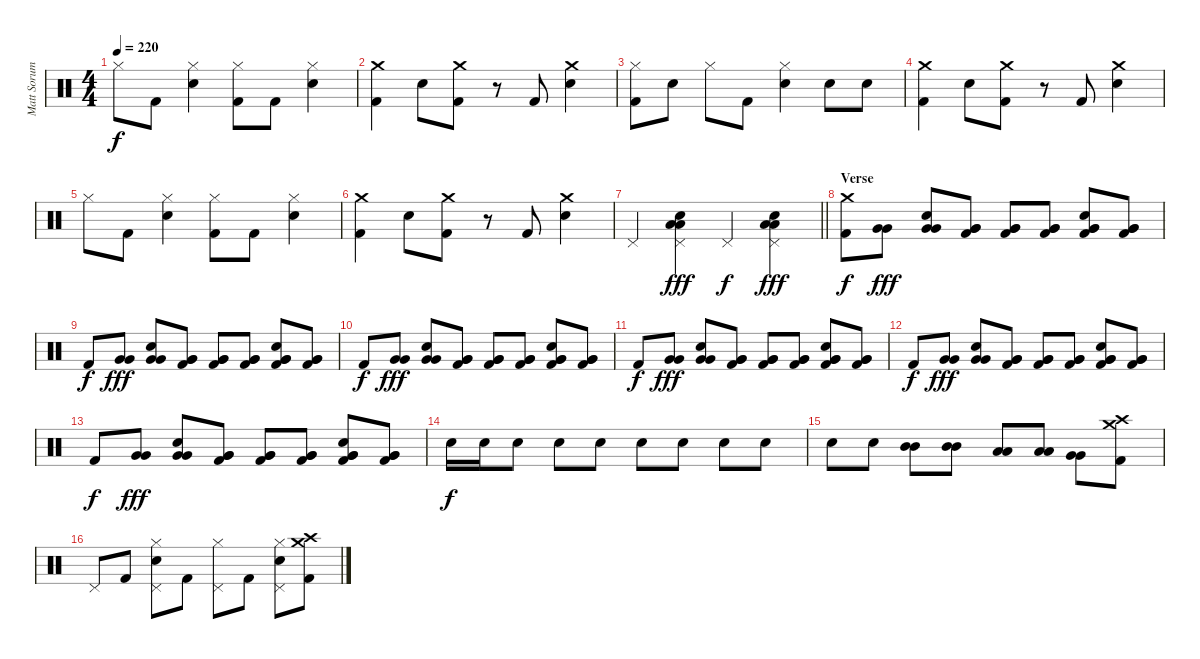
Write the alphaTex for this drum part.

\track ("Matt Sorum - Drums" "Matt Sorum") {instrument percussion}
\staff {score}
\articulation defaults
\ts (4 4)
\tempo 220
\clef neutral
\ks c "Hi-Hat (closed)".8{dy f} "Kick (hit) 2".8
("Hi-Hat (closed)" "Snare (hit) 2").4 ("Hi-Hat (closed)" "Kick (hit) 2").8 "Kick (hit) 2".8 ("Hi-Hat (closed)" "Snare (hit) 2").4 |
("Crash medium (hit)" "Kick (hit) 2").4 "Snare (hit) 2".8 ("Crash medium (hit)" "Kick (hit) 2").8 r.8 "Kick (hit) 2".8 ("Crash medium (hit)" "Snare (hit) 2").4 |
("Hi-Hat (closed)" "Kick (hit) 2").8 "Snare (hit) 2".8 "Hi-Hat (closed)".8 "Kick (hit) 2".8 ("Hi-Hat (closed)" "Snare (hit) 2").4 "Snare (hit) 2".8 "Snare (hit) 2".8 |
("Crash medium (hit)" "Kick (hit) 2").4 "Snare (hit) 2".8 ("Crash medium (hit)" "Kick (hit) 2").8 r.8 "Kick (hit) 2".8 ("Crash medium (hit)" "Snare (hit) 2").4 |
"Hi-Hat (closed)".8 "Kick (hit) 2".8 ("Hi-Hat (closed)" "Snare (hit) 2").4 ("Hi-Hat (closed)" "Kick (hit) 2").8 "Kick (hit) 2".8 ("Hi-Hat (closed)" "Snare (hit) 2").4 |
("Crash medium (hit)" "Kick (hit) 2").4 "Snare (hit) 2".8 ("Crash medium (hit)" "Kick (hit) 2").8 r.8 "Kick (hit) 2".8 ("Crash medium (hit)" "Snare (hit) 2").4 |
\barLineRight lightlight "Pedal Hi-Hat (hit)".4
("Pedal Hi-Hat (hit)" "Low Tom (hit)" "Low Tom (hit)" "Snare (hit) 2").4{dy fff} "Pedal Hi-Hat (hit)".4{dy f} ("Pedal Hi-Hat (hit)" "Low Tom (hit)" "Low Tom (hit)" "Snare (hit) 2").4{dy fff} |
\section ("" "Verse")
("Crash medium (hit)" "Kick (hit) 2").8{dy f} ("Very Low Tom (hit)" "Very Low Tom (hit)").8{dy fff} ("Very Low Tom (hit)" "Very Low Tom (hit)" "Snare (hit) 2").8 ("Very Low Tom (hit)" "Very Low Tom (hit)" "Kick (hit) 2").8 ("Very Low Tom (hit)" "Very Low Tom (hit)" "Kick (hit) 2").8 ("Very Low Tom (hit)" "Very Low Tom (hit)" "Kick (hit) 2").8 ("Very Low Tom (hit)" "Very Low Tom (hit)" "Snare (hit) 2" "Kick (hit) 2").8 ("Very Low Tom (hit)" "Very Low Tom (hit)" "Kick (hit) 2").8 |
"Kick (hit) 2".8{dy f} ("Very Low Tom (hit)" "Very Low Tom (hit)").8{dy fff} ("Very Low Tom (hit)" "Very Low Tom (hit)" "Snare (hit) 2").8 ("Very Low Tom (hit)" "Very Low Tom (hit)" "Kick (hit) 2").8 ("Very Low Tom (hit)" "Very Low Tom (hit)" "Kick (hit) 2").8 ("Very Low Tom (hit)" "Very Low Tom (hit)" "Kick (hit) 2").8 ("Very Low Tom (hit)" "Very Low Tom (hit)" "Snare (hit) 2" "Kick (hit) 2").8 ("Very Low Tom (hit)" "Very Low Tom (hit)" "Kick (hit) 2").8 |
"Kick (hit) 2".8{dy f} ("Very Low Tom (hit)" "Very Low Tom (hit)").8{dy fff} ("Very Low Tom (hit)" "Very Low Tom (hit)" "Snare (hit) 2").8 ("Very Low Tom (hit)" "Very Low Tom (hit)" "Kick (hit) 2").8 ("Very Low Tom (hit)" "Very Low Tom (hit)" "Kick (hit) 2").8 ("Very Low Tom (hit)" "Very Low Tom (hit)" "Kick (hit) 2").8 ("Very Low Tom (hit)" "Very Low Tom (hit)" "Snare (hit) 2" "Kick (hit) 2").8 ("Very Low Tom (hit)" "Very Low Tom (hit)" "Kick (hit) 2").8 |
"Kick (hit) 2".8{dy f} ("Very Low Tom (hit)" "Very Low Tom (hit)").8{dy fff} ("Very Low Tom (hit)" "Very Low Tom (hit)" "Snare (hit) 2").8 ("Very Low Tom (hit)" "Very Low Tom (hit)" "Kick (hit) 2").8 ("Very Low Tom (hit)" "Very Low Tom (hit)" "Kick (hit) 2").8 ("Very Low Tom (hit)" "Very Low Tom (hit)" "Kick (hit) 2").8 ("Very Low Tom (hit)" "Very Low Tom (hit)" "Snare (hit) 2" "Kick (hit) 2").8 ("Very Low Tom (hit)" "Very Low Tom (hit)" "Kick (hit) 2").8 |
"Kick (hit) 2".8{dy f} ("Very Low Tom (hit)" "Very Low Tom (hit)").8{dy fff} ("Very Low Tom (hit)" "Very Low Tom (hit)" "Snare (hit) 2").8 ("Very Low Tom (hit)" "Very Low Tom (hit)" "Kick (hit) 2").8 ("Very Low Tom (hit)" "Very Low Tom (hit)" "Kick (hit) 2").8 ("Very Low Tom (hit)" "Very Low Tom (hit)" "Kick (hit) 2").8 ("Very Low Tom (hit)" "Very Low Tom (hit)" "Snare (hit) 2" "Kick (hit) 2").8 ("Very Low Tom (hit)" "Very Low Tom (hit)" "Kick (hit) 2").8 |
"Kick (hit) 2".8{dy f} ("Very Low Tom (hit)" "Very Low Tom (hit)").8{dy fff} ("Very Low Tom (hit)" "Very Low Tom (hit)" "Snare (hit) 2").8 ("Very Low Tom (hit)" "Very Low Tom (hit)" "Kick (hit) 2").8 ("Very Low Tom (hit)" "Very Low Tom (hit)" "Kick (hit) 2").8 ("Very Low Tom (hit)" "Very Low Tom (hit)" "Kick (hit) 2").8 ("Very Low Tom (hit)" "Very Low Tom (hit)" "Snare (hit) 2" "Kick (hit) 2").8 ("Very Low Tom (hit)" "Very Low Tom (hit)" "Kick (hit) 2").8 |
"Snare (hit) 2".16{dy f} "Snare (hit) 2".16 "Snare (hit) 2".8 "Snare (hit) 2".8 "Snare (hit) 2".8 "Snare (hit) 2".8 "Snare (hit) 2".8 "Snare (hit) 2".8 "Snare (hit) 2".8 |
"Snare (hit) 2".8 "Snare (hit) 2".8 ("Mid Tom (hit)" "Mid Tom (hit)").8 ("Mid Tom (hit)" "Mid Tom (hit)").8 ("Low Tom (hit)" "Low Tom (hit)").8 ("Low Tom (hit)" "Low Tom (hit)").8 ("Very Low Tom (hit)" "Very Low Tom (hit)").8 ("Crash medium (hit)" "Crash high (hit)" "Kick (hit) 2").8 |
"Pedal Hi-Hat (hit)".8 "Kick (hit) 2".8 ("Hi-Hat (closed)" "Pedal Hi-Hat (hit)" "Snare (hit) 2").8 "Kick (hit) 2".8 ("Hi-Hat (closed)" "Pedal Hi-Hat (hit)").8 "Kick (hit) 2".8 ("Hi-Hat (closed)" "Pedal Hi-Hat (hit)" "Snare (hit) 2").8 ("Crash medium (hit)" "Crash high (hit)" "Kick (hit) 2").8
